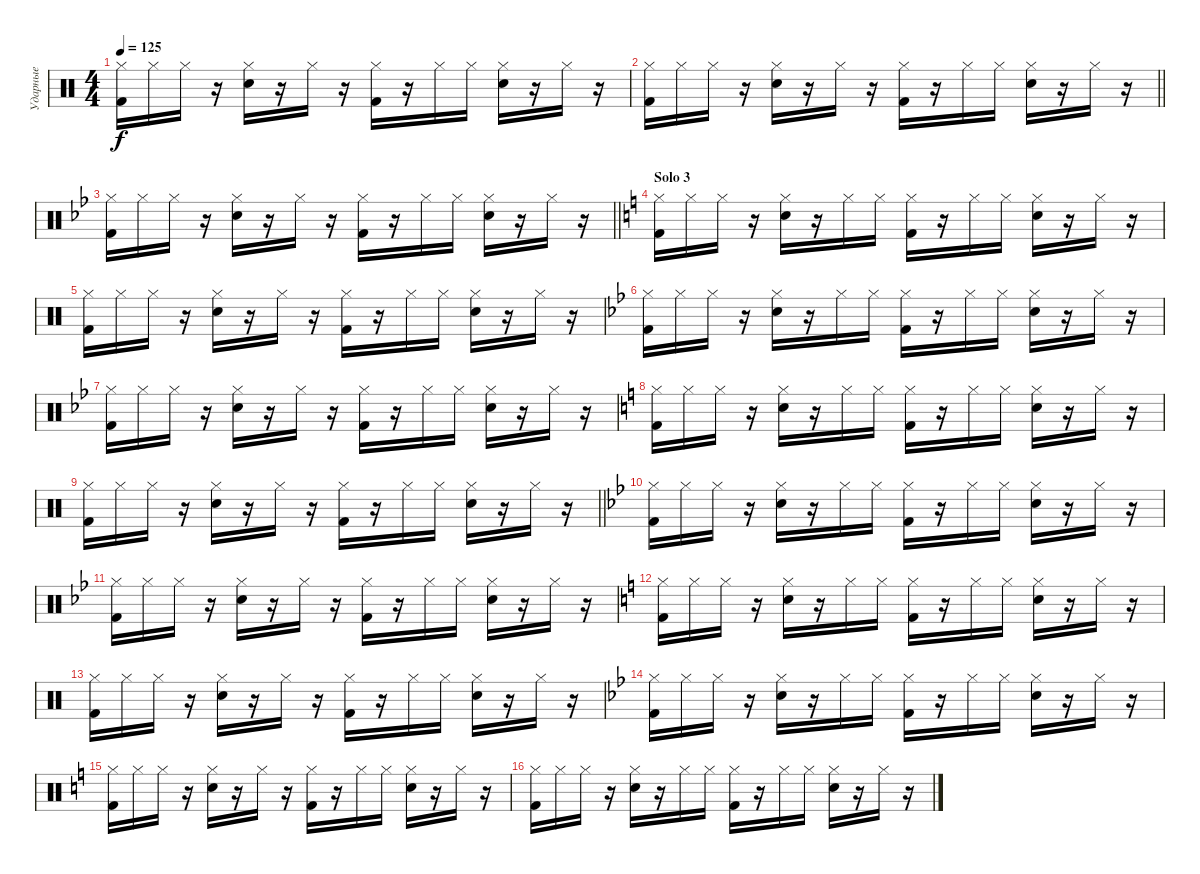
\track ("Ударные" "Ударные") {instrument percussion}
\staff {score}
\articulation defaults
\ts (4 4)
\tempo 125
\clef neutral
\ks c
("Kick (hit) 2" "Hi-Hat (closed)").16{dy f} "Hi-Hat (closed)".16 "Hi-Hat (closed)".16 r.16 ("Snare (hit) 2" "Hi-Hat (closed)").16 r.16 "Hi-Hat (closed)".16 r.16 ("Kick (hit) 2" "Hi-Hat (closed)").16 r.16 "Hi-Hat (closed)".16 "Hi-Hat (closed)".16 ("Snare (hit) 2" "Hi-Hat (closed)").16 r.16 "Hi-Hat (closed)".16 r.16 |
\barLineRight lightlight
("Kick (hit) 2" "Hi-Hat (closed)").16 "Hi-Hat (closed)".16 "Hi-Hat (closed)".16 r.16 ("Snare (hit) 2" "Hi-Hat (closed)").16 r.16 "Hi-Hat (closed)".16 r.16 ("Kick (hit) 2" "Hi-Hat (closed)").16 r.16 "Hi-Hat (closed)".16 "Hi-Hat (closed)".16 ("Snare (hit) 2" "Hi-Hat (closed)").16 r.16 "Hi-Hat (closed)".16 r.16 |
\barLineRight lightlight
\ks bb
("Kick (hit) 2" "Hi-Hat (closed)").16 "Hi-Hat (closed)".16 "Hi-Hat (closed)".16 r.16 ("Snare (hit) 2" "Hi-Hat (closed)").16 r.16 "Hi-Hat (closed)".16 r.16 ("Kick (hit) 2" "Hi-Hat (closed)").16 r.16 "Hi-Hat (closed)".16 "Hi-Hat (closed)".16 ("Snare (hit) 2" "Hi-Hat (closed)").16 r.16 "Hi-Hat (closed)".16 r.16 |
\section ("" "Solo 3")
\ks c
("Kick (hit) 2" "Hi-Hat (closed)").16 "Hi-Hat (closed)".16 "Hi-Hat (closed)".16 r.16 ("Snare (hit) 2" "Hi-Hat (closed)").16 r.16 "Hi-Hat (closed)".16 "Hi-Hat (closed)".16 ("Kick (hit) 2" "Hi-Hat (closed)").16 r.16 "Hi-Hat (closed)".16 "Hi-Hat (closed)".16 ("Snare (hit) 2" "Hi-Hat (closed)").16 r.16 "Hi-Hat (closed)".16 r.16 |
("Kick (hit) 2" "Hi-Hat (closed)").16 "Hi-Hat (closed)".16 "Hi-Hat (closed)".16 r.16 ("Snare (hit) 2" "Hi-Hat (closed)").16 r.16 "Hi-Hat (closed)".16 r.16 ("Kick (hit) 2" "Hi-Hat (closed)").16 r.16 "Hi-Hat (closed)".16 "Hi-Hat (closed)".16 ("Snare (hit) 2" "Hi-Hat (closed)").16 r.16 "Hi-Hat (closed)".16 r.16 |
\ks bb
("Kick (hit) 2" "Hi-Hat (closed)").16 "Hi-Hat (closed)".16 "Hi-Hat (closed)".16 r.16 ("Snare (hit) 2" "Hi-Hat (closed)").16 r.16 "Hi-Hat (closed)".16 "Hi-Hat (closed)".16 ("Kick (hit) 2" "Hi-Hat (closed)").16 r.16 "Hi-Hat (closed)".16 "Hi-Hat (closed)".16 ("Snare (hit) 2" "Hi-Hat (closed)").16 r.16 "Hi-Hat (closed)".16 r.16 |
("Kick (hit) 2" "Hi-Hat (closed)").16 "Hi-Hat (closed)".16 "Hi-Hat (closed)".16 r.16 ("Snare (hit) 2" "Hi-Hat (closed)").16 r.16 "Hi-Hat (closed)".16 r.16 ("Kick (hit) 2" "Hi-Hat (closed)").16 r.16 "Hi-Hat (closed)".16 "Hi-Hat (closed)".16 ("Snare (hit) 2" "Hi-Hat (closed)").16 r.16 "Hi-Hat (closed)".16 r.16 |
\ks c
("Kick (hit) 2" "Hi-Hat (closed)").16 "Hi-Hat (closed)".16 "Hi-Hat (closed)".16 r.16 ("Snare (hit) 2" "Hi-Hat (closed)").16 r.16 "Hi-Hat (closed)".16 "Hi-Hat (closed)".16 ("Kick (hit) 2" "Hi-Hat (closed)").16 r.16 "Hi-Hat (closed)".16 "Hi-Hat (closed)".16 ("Snare (hit) 2" "Hi-Hat (closed)").16 r.16 "Hi-Hat (closed)".16 r.16 |
\barLineRight lightlight
("Kick (hit) 2" "Hi-Hat (closed)").16 "Hi-Hat (closed)".16 "Hi-Hat (closed)".16 r.16 ("Snare (hit) 2" "Hi-Hat (closed)").16 r.16 "Hi-Hat (closed)".16 r.16 ("Kick (hit) 2" "Hi-Hat (closed)").16 r.16 "Hi-Hat (closed)".16 "Hi-Hat (closed)".16 ("Snare (hit) 2" "Hi-Hat (closed)").16 r.16 "Hi-Hat (closed)".16 r.16 |
\ks bb
("Kick (hit) 2" "Hi-Hat (closed)").16 "Hi-Hat (closed)".16 "Hi-Hat (closed)".16 r.16 ("Snare (hit) 2" "Hi-Hat (closed)").16 r.16 "Hi-Hat (closed)".16 "Hi-Hat (closed)".16 ("Kick (hit) 2" "Hi-Hat (closed)").16 r.16 "Hi-Hat (closed)".16 "Hi-Hat (closed)".16 ("Snare (hit) 2" "Hi-Hat (closed)").16 r.16 "Hi-Hat (closed)".16 r.16 |
("Kick (hit) 2" "Hi-Hat (closed)").16 "Hi-Hat (closed)".16 "Hi-Hat (closed)".16 r.16 ("Snare (hit) 2" "Hi-Hat (closed)").16 r.16 "Hi-Hat (closed)".16 r.16 ("Kick (hit) 2" "Hi-Hat (closed)").16 r.16 "Hi-Hat (closed)".16 "Hi-Hat (closed)".16 ("Snare (hit) 2" "Hi-Hat (closed)").16 r.16 "Hi-Hat (closed)".16 r.16 |
\ks c
("Kick (hit) 2" "Hi-Hat (closed)").16 "Hi-Hat (closed)".16 "Hi-Hat (closed)".16 r.16 ("Snare (hit) 2" "Hi-Hat (closed)").16 r.16 "Hi-Hat (closed)".16 "Hi-Hat (closed)".16 ("Kick (hit) 2" "Hi-Hat (closed)").16 r.16 "Hi-Hat (closed)".16 "Hi-Hat (closed)".16 ("Snare (hit) 2" "Hi-Hat (closed)").16 r.16 "Hi-Hat (closed)".16 r.16 |
("Kick (hit) 2" "Hi-Hat (closed)").16 "Hi-Hat (closed)".16 "Hi-Hat (closed)".16 r.16 ("Snare (hit) 2" "Hi-Hat (closed)").16 r.16 "Hi-Hat (closed)".16 r.16 ("Kick (hit) 2" "Hi-Hat (closed)").16 r.16 "Hi-Hat (closed)".16 "Hi-Hat (closed)".16 ("Snare (hit) 2" "Hi-Hat (closed)").16 r.16 "Hi-Hat (closed)".16 r.16 |
\ks bb
("Kick (hit) 2" "Hi-Hat (closed)").16 "Hi-Hat (closed)".16 "Hi-Hat (closed)".16 r.16 ("Snare (hit) 2" "Hi-Hat (closed)").16 r.16 "Hi-Hat (closed)".16 "Hi-Hat (closed)".16 ("Kick (hit) 2" "Hi-Hat (closed)").16 r.16 "Hi-Hat (closed)".16 "Hi-Hat (closed)".16 ("Snare (hit) 2" "Hi-Hat (closed)").16 r.16 "Hi-Hat (closed)".16 r.16 |
\ks c
("Kick (hit) 2" "Hi-Hat (closed)").16 "Hi-Hat (closed)".16 "Hi-Hat (closed)".16 r.16 ("Snare (hit) 2" "Hi-Hat (closed)").16 r.16 "Hi-Hat (closed)".16 r.16 ("Kick (hit) 2" "Hi-Hat (closed)").16 r.16 "Hi-Hat (closed)".16 "Hi-Hat (closed)".16 ("Snare (hit) 2" "Hi-Hat (closed)").16 r.16 "Hi-Hat (closed)".16 r.16 |
("Kick (hit) 2" "Hi-Hat (closed)").16 "Hi-Hat (closed)".16 "Hi-Hat (closed)".16 r.16 ("Snare (hit) 2" "Hi-Hat (closed)").16 r.16 "Hi-Hat (closed)".16 "Hi-Hat (closed)".16 ("Kick (hit) 2" "Hi-Hat (closed)").16 r.16 "Hi-Hat (closed)".16 "Hi-Hat (closed)".16 ("Snare (hit) 2" "Hi-Hat (closed)").16 r.16 "Hi-Hat (closed)".16 r.16
